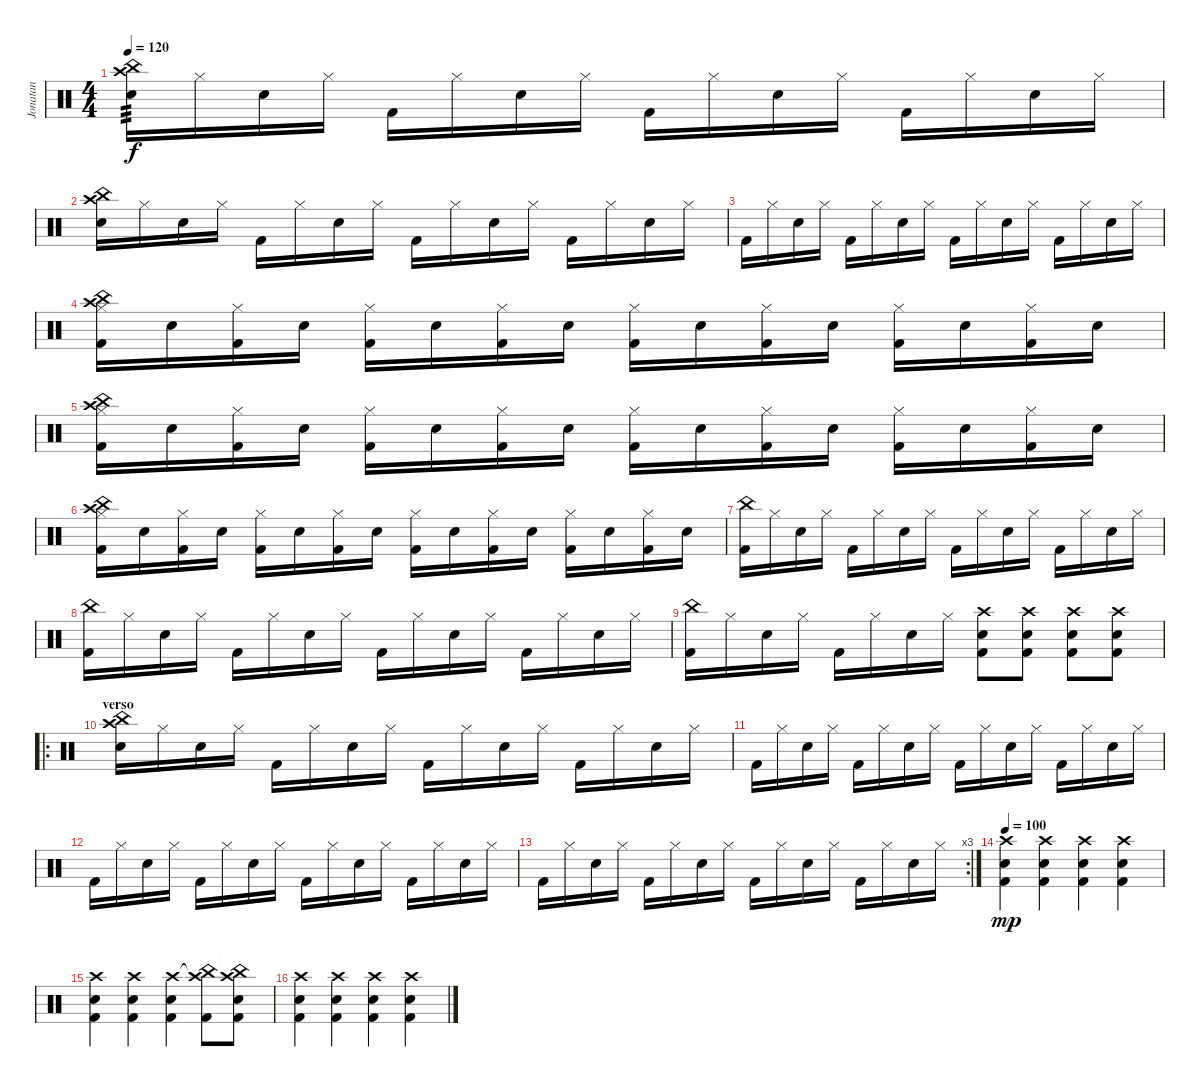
\track ("Jonatan" "Jonatan") {instrument percussion}
\staff {score}
\articulation defaults
\ts (4 4)
\tempo 120
\clef neutral
\ks c
("Crash high (hit)" "China (hit)" "Electric Snare (hit)").16{tp 3 dy f} "Hi-Hat (closed)".16 "Electric Snare (hit)".16 "Hi-Hat (closed)".16 "Kick (hit) 2".16 "Hi-Hat (closed)".16 "Electric Snare (hit)".16 "Hi-Hat (closed)".16 "Kick (hit) 2".16 "Hi-Hat (closed)".16 "Electric Snare (hit)".16 "Hi-Hat (closed)".16 "Kick (hit) 2".16 "Hi-Hat (closed)".16 "Electric Snare (hit)".16 "Hi-Hat (closed)".16 |
("Crash high (hit)" "China (hit)" "Electric Snare (hit)").16 "Hi-Hat (closed)".16 "Electric Snare (hit)".16 "Hi-Hat (closed)".16 "Kick (hit) 2".16 "Hi-Hat (closed)".16 "Electric Snare (hit)".16 "Hi-Hat (closed)".16 "Kick (hit) 2".16 "Hi-Hat (closed)".16 "Electric Snare (hit)".16 "Hi-Hat (closed)".16 "Kick (hit) 2".16 "Hi-Hat (closed)".16 "Electric Snare (hit)".16 "Hi-Hat (closed)".16 |
"Kick (hit) 2".16 "Hi-Hat (closed)".16 "Electric Snare (hit)".16 "Hi-Hat (closed)".16 "Kick (hit) 2".16 "Hi-Hat (closed)".16 "Electric Snare (hit)".16 "Hi-Hat (closed)".16 "Kick (hit) 2".16 "Hi-Hat (closed)".16 "Electric Snare (hit)".16 "Hi-Hat (closed)".16 "Kick (hit) 2".16 "Hi-Hat (closed)".16 "Electric Snare (hit)".16 "Hi-Hat (closed)".16 |
("Crash high (hit)" "China (hit)" "Hi-Hat (closed)" "Kick (hit) 2").16 "Electric Snare (hit)".16 ("Hi-Hat (closed)" "Kick (hit) 2").16 "Electric Snare (hit)".16 ("Hi-Hat (closed)" "Kick (hit) 2").16 "Electric Snare (hit)".16 ("Hi-Hat (closed)" "Kick (hit) 2").16 "Electric Snare (hit)".16 ("Hi-Hat (closed)" "Kick (hit) 2").16 "Electric Snare (hit)".16 ("Hi-Hat (closed)" "Kick (hit) 2").16 "Electric Snare (hit)".16 ("Hi-Hat (closed)" "Kick (hit) 2").16 "Electric Snare (hit)".16 ("Hi-Hat (closed)" "Kick (hit) 2").16 "Electric Snare (hit)".16 |
("Crash high (hit)" "China (hit)" "Hi-Hat (closed)" "Kick (hit) 2").16 "Electric Snare (hit)".16 ("Hi-Hat (closed)" "Kick (hit) 2").16 "Electric Snare (hit)".16 ("Hi-Hat (closed)" "Kick (hit) 2").16 "Electric Snare (hit)".16 ("Hi-Hat (closed)" "Kick (hit) 2").16 "Electric Snare (hit)".16 ("Hi-Hat (closed)" "Kick (hit) 2").16 "Electric Snare (hit)".16 ("Hi-Hat (closed)" "Kick (hit) 2").16 "Electric Snare (hit)".16 ("Hi-Hat (closed)" "Kick (hit) 2").16 "Electric Snare (hit)".16 ("Hi-Hat (closed)" "Kick (hit) 2").16 "Electric Snare (hit)".16 |
("Crash high (hit)" "China (hit)" "Hi-Hat (closed)" "Kick (hit) 2").16 "Electric Snare (hit)".16 ("Hi-Hat (closed)" "Kick (hit) 2").16 "Electric Snare (hit)".16 ("Hi-Hat (closed)" "Kick (hit) 2").16 "Electric Snare (hit)".16 ("Hi-Hat (closed)" "Kick (hit) 2").16 "Electric Snare (hit)".16 ("Hi-Hat (closed)" "Kick (hit) 2").16 "Electric Snare (hit)".16 ("Hi-Hat (closed)" "Kick (hit) 2").16 "Electric Snare (hit)".16 ("Hi-Hat (closed)" "Kick (hit) 2").16 "Electric Snare (hit)".16 ("Hi-Hat (closed)" "Kick (hit) 2").16 "Electric Snare (hit)".16 |
("China (hit)" "Kick (hit) 2").16 "Hi-Hat (closed)".16 "Electric Snare (hit)".16 "Hi-Hat (closed)".16 "Kick (hit) 2".16 "Hi-Hat (closed)".16 "Electric Snare (hit)".16 "Hi-Hat (closed)".16 "Kick (hit) 2".16 "Hi-Hat (closed)".16 "Electric Snare (hit)".16 "Hi-Hat (closed)".16 "Kick (hit) 2".16 "Hi-Hat (closed)".16 "Electric Snare (hit)".16 "Hi-Hat (closed)".16 |
("China (hit)" "Kick (hit) 2").16 "Hi-Hat (closed)".16 "Electric Snare (hit)".16 "Hi-Hat (closed)".16 "Kick (hit) 2".16 "Hi-Hat (closed)".16 "Electric Snare (hit)".16 "Hi-Hat (closed)".16 "Kick (hit) 2".16 "Hi-Hat (closed)".16 "Electric Snare (hit)".16 "Hi-Hat (closed)".16 "Kick (hit) 2".16 "Hi-Hat (closed)".16 "Electric Snare (hit)".16 "Hi-Hat (closed)".16 |
("China (hit)" "Kick (hit) 2").16 "Hi-Hat (closed)".16 "Electric Snare (hit)".16 "Hi-Hat (closed)".16 "Kick (hit) 2".16 "Hi-Hat (closed)".16 "Electric Snare (hit)".16 "Hi-Hat (closed)".16 ("Crash high (hit)" "Electric Snare (hit)" "Kick (hit) 2").8 ("Crash high (hit)" "Electric Snare (hit)" "Kick (hit) 2").8 ("Crash high (hit)" "Electric Snare (hit)" "Kick (hit) 2").8 ("Crash high (hit)" "Electric Snare (hit)" "Kick (hit) 2").8 |
\ro
\section ("" "verso")
("Crash high (hit)" "China (hit)" "Electric Snare (hit)").16 "Hi-Hat (closed)".16 "Electric Snare (hit)".16 "Hi-Hat (closed)".16 "Kick (hit) 2".16 "Hi-Hat (closed)".16 "Electric Snare (hit)".16 "Hi-Hat (closed)".16 "Kick (hit) 2".16 "Hi-Hat (closed)".16 "Electric Snare (hit)".16 "Hi-Hat (closed)".16 "Kick (hit) 2".16 "Hi-Hat (closed)".16 "Electric Snare (hit)".16 "Hi-Hat (closed)".16 |
"Kick (hit) 2".16 "Hi-Hat (closed)".16 "Electric Snare (hit)".16 "Hi-Hat (closed)".16 "Kick (hit) 2".16 "Hi-Hat (closed)".16 "Electric Snare (hit)".16 "Hi-Hat (closed)".16 "Kick (hit) 2".16 "Hi-Hat (closed)".16 "Electric Snare (hit)".16 "Hi-Hat (closed)".16 "Kick (hit) 2".16 "Hi-Hat (closed)".16 "Electric Snare (hit)".16 "Hi-Hat (closed)".16 |
"Kick (hit) 2".16 "Hi-Hat (closed)".16 "Electric Snare (hit)".16 "Hi-Hat (closed)".16 "Kick (hit) 2".16 "Hi-Hat (closed)".16 "Electric Snare (hit)".16 "Hi-Hat (closed)".16 "Kick (hit) 2".16 "Hi-Hat (closed)".16 "Electric Snare (hit)".16 "Hi-Hat (closed)".16 "Kick (hit) 2".16 "Hi-Hat (closed)".16 "Electric Snare (hit)".16 "Hi-Hat (closed)".16 |
\rc 3 "Kick (hit) 2".16 "Hi-Hat (closed)".16 "Electric Snare (hit)".16 "Hi-Hat (closed)".16 "Kick (hit) 2".16 "Hi-Hat (closed)".16 "Electric Snare (hit)".16 "Hi-Hat (closed)".16 "Kick (hit) 2".16 "Hi-Hat (closed)".16 "Electric Snare (hit)".16 "Hi-Hat (closed)".16 "Kick (hit) 2".16 "Hi-Hat (closed)".16 "Electric Snare (hit)".16 "Hi-Hat (closed)".16
|
\tempo 100
("Crash high (hit)" "Electric Snare (hit)" "Kick (hit) 2").4{dy mp} ("Crash high (hit)" "Electric Snare (hit)" "Kick (hit) 2").4 ("Crash high (hit)" "Electric Snare (hit)" "Kick (hit) 2").4 ("Crash high (hit)" "Electric Snare (hit)" "Kick (hit) 2").4 |
("Crash high (hit)" "Electric Snare (hit)" "Kick (hit) 2").4 ("Crash high (hit)" "Electric Snare (hit)" "Kick (hit) 2").4 ("Crash high (hit)" "Electric Snare (hit)" "Kick (hit) 2").4 ("Crash high (hit)"{t} "China (hit)" "Kick (hit) 2").8 ("Crash high (hit)" "China (hit)"{t} "Electric Snare (hit)" "Kick (hit) 2").8 |
("Crash high (hit)" "Electric Snare (hit)" "Kick (hit) 2").4 ("Crash high (hit)" "Electric Snare (hit)" "Kick (hit) 2").4 ("Crash high (hit)" "Electric Snare (hit)" "Kick (hit) 2").4 ("Crash high (hit)" "Electric Snare (hit)" "Kick (hit) 2").4
